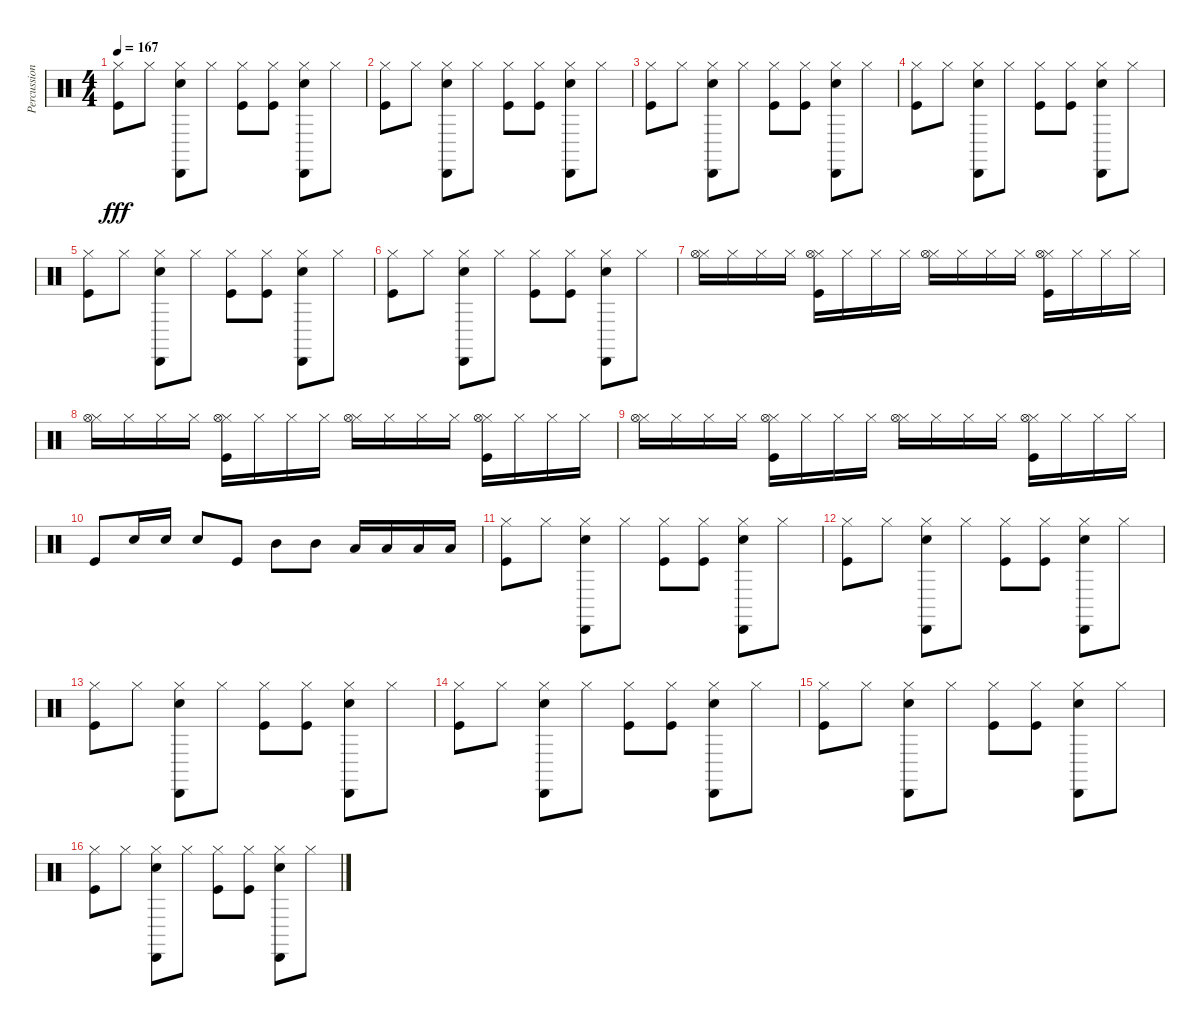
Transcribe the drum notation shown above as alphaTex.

\track ("Percussion" "Percussion") {instrument percussion}
\staff {score}
\articulation defaults
\ts (4 4)
\tempo 167
\clef neutral
\ks c
("Hi-Hat (closed)" "Kick (hit)").8{dy fff} "Hi-Hat (closed)".8 ("Hi-Hat (closed)" "Cabasa (hit)" "Snare (hit) 2").8 "Hi-Hat (closed)".8 ("Hi-Hat (closed)" "Kick (hit)").8 ("Hi-Hat (closed)" "Kick (hit)").8 ("Hi-Hat (closed)" "Cabasa (hit)" "Snare (hit) 2").8 "Hi-Hat (closed)".8 |
("Hi-Hat (closed)" "Kick (hit)").8 "Hi-Hat (closed)".8 ("Hi-Hat (closed)" "Cabasa (hit)" "Snare (hit) 2").8 "Hi-Hat (closed)".8 ("Hi-Hat (closed)" "Kick (hit)").8 ("Hi-Hat (closed)" "Kick (hit)").8 ("Hi-Hat (closed)" "Cabasa (hit)" "Snare (hit) 2").8 "Hi-Hat (closed)".8 |
("Hi-Hat (closed)" "Kick (hit)").8 "Hi-Hat (closed)".8 ("Hi-Hat (closed)" "Cabasa (hit)" "Snare (hit) 2").8 "Hi-Hat (closed)".8 ("Hi-Hat (closed)" "Kick (hit)").8 ("Hi-Hat (closed)" "Kick (hit)").8 ("Hi-Hat (closed)" "Cabasa (hit)" "Snare (hit) 2").8 "Hi-Hat (closed)".8 |
("Hi-Hat (closed)" "Kick (hit)").8 "Hi-Hat (closed)".8 ("Hi-Hat (closed)" "Cabasa (hit)" "Snare (hit) 2").8 "Hi-Hat (closed)".8 ("Hi-Hat (closed)" "Kick (hit)").8 ("Hi-Hat (closed)" "Kick (hit)").8 ("Hi-Hat (closed)" "Cabasa (hit)" "Snare (hit) 2").8 "Hi-Hat (closed)".8 |
("Hi-Hat (closed)" "Kick (hit)").8 "Hi-Hat (closed)".8 ("Hi-Hat (closed)" "Cabasa (hit)" "Snare (hit) 2").8 "Hi-Hat (closed)".8 ("Hi-Hat (closed)" "Kick (hit)").8 ("Hi-Hat (closed)" "Kick (hit)").8 ("Hi-Hat (closed)" "Cabasa (hit)" "Snare (hit) 2").8 "Hi-Hat (closed)".8 |
("Hi-Hat (closed)" "Kick (hit)").8 "Hi-Hat (closed)".8 ("Hi-Hat (closed)" "Cabasa (hit)" "Snare (hit) 2").8 "Hi-Hat (closed)".8 ("Hi-Hat (closed)" "Kick (hit)").8 ("Hi-Hat (closed)" "Kick (hit)").8 ("Hi-Hat (closed)" "Cabasa (hit)" "Snare (hit) 2").8 "Hi-Hat (closed)".8 |
("Hi-Hat (closed)" "Hi-Hat (open)").16 "Hi-Hat (closed)".16 "Hi-Hat (closed)".16 "Hi-Hat (closed)".16 ("Hi-Hat (closed)" "Hi-Hat (open)" "Kick (hit)").16 "Hi-Hat (closed)".16 "Hi-Hat (closed)".16 "Hi-Hat (closed)".16 ("Hi-Hat (closed)" "Hi-Hat (open)").16 "Hi-Hat (closed)".16 "Hi-Hat (closed)".16 "Hi-Hat (closed)".16 ("Hi-Hat (closed)" "Hi-Hat (open)" "Kick (hit)").16 "Hi-Hat (closed)".16 "Hi-Hat (closed)".16 "Hi-Hat (closed)".16 |
("Hi-Hat (closed)" "Hi-Hat (open)").16 "Hi-Hat (closed)".16 "Hi-Hat (closed)".16 "Hi-Hat (closed)".16 ("Hi-Hat (closed)" "Hi-Hat (open)" "Kick (hit)").16 "Hi-Hat (closed)".16 "Hi-Hat (closed)".16 "Hi-Hat (closed)".16 ("Hi-Hat (closed)" "Hi-Hat (open)").16 "Hi-Hat (closed)".16 "Hi-Hat (closed)".16 "Hi-Hat (closed)".16 ("Hi-Hat (closed)" "Hi-Hat (open)" "Kick (hit)").16 "Hi-Hat (closed)".16 "Hi-Hat (closed)".16 "Hi-Hat (closed)".16 |
("Hi-Hat (closed)" "Hi-Hat (open)").16 "Hi-Hat (closed)".16 "Hi-Hat (closed)".16 "Hi-Hat (closed)".16 ("Hi-Hat (closed)" "Hi-Hat (open)" "Kick (hit)").16 "Hi-Hat (closed)".16 "Hi-Hat (closed)".16 "Hi-Hat (closed)".16 ("Hi-Hat (closed)" "Hi-Hat (open)").16 "Hi-Hat (closed)".16 "Hi-Hat (closed)".16 "Hi-Hat (closed)".16 ("Hi-Hat (closed)" "Hi-Hat (open)" "Kick (hit)").16 "Hi-Hat (closed)".16 "Hi-Hat (closed)".16 "Hi-Hat (closed)".16 |
"Kick (hit)".8 "Snare (hit) 2".16 "Snare (hit) 2".16 "Snare (hit) 2".8 "Kick (hit)".8 "Mid Tom (hit)".8 "Mid Tom (hit)".8 "Low Tom (hit)".16 "Low Tom (hit)".16 "Low Tom (hit)".16 "Low Tom (hit)".16 |
("Hi-Hat (closed)" "Kick (hit)").8 "Hi-Hat (closed)".8 ("Hi-Hat (closed)" "Cabasa (hit)" "Snare (hit) 2").8 "Hi-Hat (closed)".8 ("Hi-Hat (closed)" "Kick (hit)").8 ("Hi-Hat (closed)" "Kick (hit)").8 ("Hi-Hat (closed)" "Cabasa (hit)" "Snare (hit) 2").8 "Hi-Hat (closed)".8 |
("Hi-Hat (closed)" "Kick (hit)").8 "Hi-Hat (closed)".8 ("Hi-Hat (closed)" "Cabasa (hit)" "Snare (hit) 2").8 "Hi-Hat (closed)".8 ("Hi-Hat (closed)" "Kick (hit)").8 ("Hi-Hat (closed)" "Kick (hit)").8 ("Hi-Hat (closed)" "Cabasa (hit)" "Snare (hit) 2").8 "Hi-Hat (closed)".8 |
("Hi-Hat (closed)" "Kick (hit)").8 "Hi-Hat (closed)".8 ("Hi-Hat (closed)" "Cabasa (hit)" "Snare (hit) 2").8 "Hi-Hat (closed)".8 ("Hi-Hat (closed)" "Kick (hit)").8 ("Hi-Hat (closed)" "Kick (hit)").8 ("Hi-Hat (closed)" "Cabasa (hit)" "Snare (hit) 2").8 "Hi-Hat (closed)".8 |
("Hi-Hat (closed)" "Kick (hit)").8 "Hi-Hat (closed)".8 ("Hi-Hat (closed)" "Cabasa (hit)" "Snare (hit) 2").8 "Hi-Hat (closed)".8 ("Hi-Hat (closed)" "Kick (hit)").8 ("Hi-Hat (closed)" "Kick (hit)").8 ("Hi-Hat (closed)" "Cabasa (hit)" "Snare (hit) 2").8 "Hi-Hat (closed)".8 |
("Hi-Hat (closed)" "Kick (hit)").8 "Hi-Hat (closed)".8 ("Hi-Hat (closed)" "Cabasa (hit)" "Snare (hit) 2").8 "Hi-Hat (closed)".8 ("Hi-Hat (closed)" "Kick (hit)").8 ("Hi-Hat (closed)" "Kick (hit)").8 ("Hi-Hat (closed)" "Cabasa (hit)" "Snare (hit) 2").8 "Hi-Hat (closed)".8 |
("Hi-Hat (closed)" "Kick (hit)").8 "Hi-Hat (closed)".8 ("Hi-Hat (closed)" "Cabasa (hit)" "Snare (hit) 2").8 "Hi-Hat (closed)".8 ("Hi-Hat (closed)" "Kick (hit)").8 ("Hi-Hat (closed)" "Kick (hit)").8 ("Hi-Hat (closed)" "Cabasa (hit)" "Snare (hit) 2").8 "Hi-Hat (closed)".8
